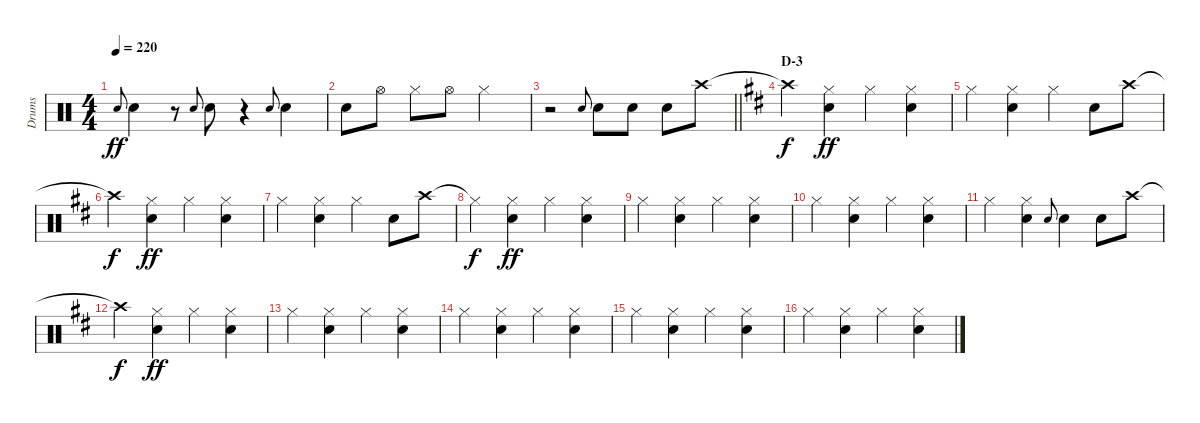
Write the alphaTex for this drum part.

\track ("Drums" "Drums") {instrument percussion}
\staff {score}
\articulation defaults
\ts (4 4)
\tempo 220
\clef neutral
\ks c "Snare (hit) 2".8{gr onbeat dy ff} "Snare (hit) 2".4
r.8 "Snare (hit) 2".8{gr onbeat} "Snare (hit) 2".8 r.4 "Snare (hit) 2".8{gr onbeat} "Snare (hit) 2".4 |
"Snare (hit) 2".8 "Hi-Hat (open)".8 "Hi-Hat (closed)".8 "Hi-Hat (open)".8 "Hi-Hat (closed)".2 |
\barLineRight lightlight
r.2 "Snare (hit) 2".8{gr onbeat} "Snare (hit) 2".8 "Snare (hit) 2".8 "Snare (hit) 2".8 "Crash high (hit)".8 |
\section ("" "D-3")
\ks d "Crash high (hit)"{t}.4{dy f}
("Hi-Hat (closed)" "Snare (hit) 2").4{dy ff} "Hi-Hat (closed)".4 ("Hi-Hat (closed)" "Snare (hit) 2").4 |
"Hi-Hat (closed)".4 ("Hi-Hat (closed)" "Snare (hit) 2").4 "Hi-Hat (closed)".4 "Snare (hit) 2".8 "Crash high (hit)".8 |
"Crash high (hit)"{t}.4{dy f} ("Hi-Hat (closed)" "Snare (hit) 2").4{dy ff} "Hi-Hat (closed)".4 ("Hi-Hat (closed)" "Snare (hit) 2").4 |
"Hi-Hat (closed)".4 ("Hi-Hat (closed)" "Snare (hit) 2").4 "Hi-Hat (closed)".4 "Snare (hit) 2".8 "Crash high (hit)".8 |
"Hi-Hat (closed)"{t}.4{dy f} ("Hi-Hat (closed)" "Snare (hit) 2").4{dy ff} "Hi-Hat (closed)".4 ("Hi-Hat (closed)" "Snare (hit) 2").4 |
"Hi-Hat (closed)".4 ("Hi-Hat (closed)" "Snare (hit) 2").4 "Hi-Hat (closed)".4 ("Hi-Hat (closed)" "Snare (hit) 2").4 |
"Hi-Hat (closed)".4 ("Hi-Hat (closed)" "Snare (hit) 2").4 "Hi-Hat (closed)".4 ("Hi-Hat (closed)" "Snare (hit) 2").4 |
"Hi-Hat (closed)".4 ("Hi-Hat (closed)" "Snare (hit) 2").4 "Snare (hit) 2".8{gr onbeat} "Snare (hit) 2".4 "Snare (hit) 2".8 "Crash high (hit)".8 |
"Crash high (hit)"{t}.4{dy f} ("Hi-Hat (closed)" "Snare (hit) 2").4{dy ff} "Hi-Hat (closed)".4 ("Hi-Hat (closed)" "Snare (hit) 2").4 |
"Hi-Hat (closed)".4 ("Hi-Hat (closed)" "Snare (hit) 2").4 "Hi-Hat (closed)".4 ("Hi-Hat (closed)" "Snare (hit) 2").4 |
"Hi-Hat (closed)".4 ("Hi-Hat (closed)" "Snare (hit) 2").4 "Hi-Hat (closed)".4 ("Hi-Hat (closed)" "Snare (hit) 2").4 |
"Hi-Hat (closed)".4 ("Hi-Hat (closed)" "Snare (hit) 2").4 "Hi-Hat (closed)".4 ("Hi-Hat (closed)" "Snare (hit) 2").4 |
"Hi-Hat (closed)".4 ("Hi-Hat (closed)" "Snare (hit) 2").4 "Hi-Hat (closed)".4 ("Hi-Hat (closed)" "Snare (hit) 2").4
